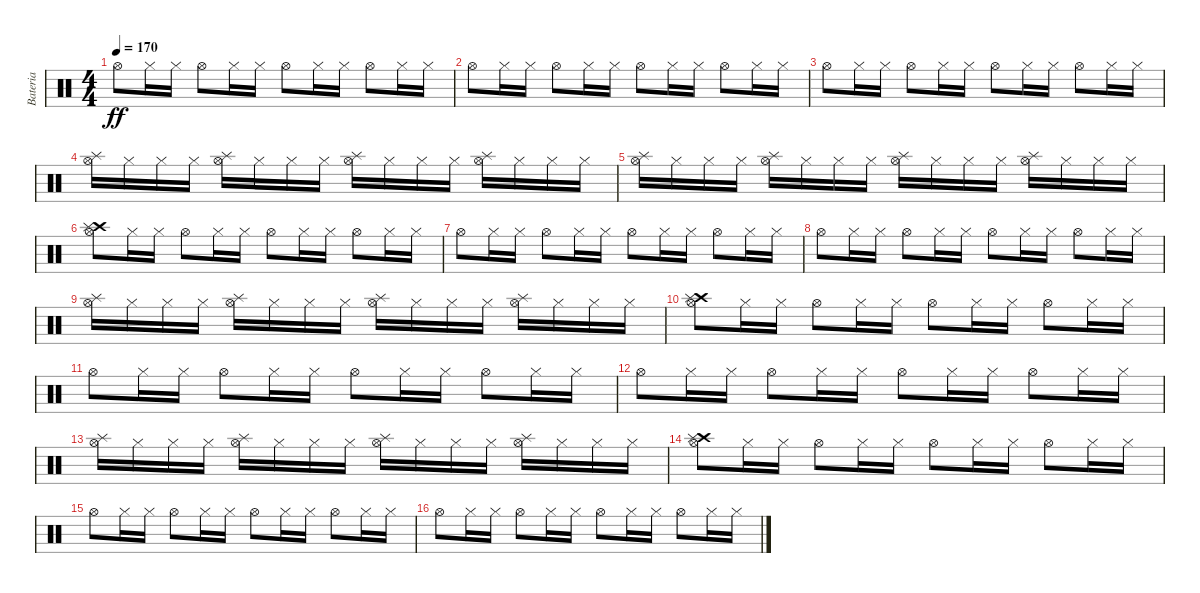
\track ("Bateria" "Bateria") {instrument percussion}
\staff {score}
\articulation defaults
\ts (4 4)
\tempo 170
\clef neutral
\ks c "Hi-Hat (open)".8{dy ff} "Hi-Hat (closed)".16 "Hi-Hat (closed)".16 "Hi-Hat (open)".8 "Hi-Hat (closed)".16 "Hi-Hat (closed)".16 "Hi-Hat (open)".8 "Hi-Hat (closed)".16 "Hi-Hat (closed)".16 "Hi-Hat (open)".8 "Hi-Hat (closed)".16 "Hi-Hat (closed)".16
|
"Hi-Hat (open)".8 "Hi-Hat (closed)".16 "Hi-Hat (closed)".16 "Hi-Hat (open)".8 "Hi-Hat (closed)".16 "Hi-Hat (closed)".16 "Hi-Hat (open)".8 "Hi-Hat (closed)".16 "Hi-Hat (closed)".16 "Hi-Hat (open)".8 "Hi-Hat (closed)".16 "Hi-Hat (closed)".16 |
"Hi-Hat (open)".8 "Hi-Hat (closed)".16 "Hi-Hat (closed)".16 "Hi-Hat (open)".8 "Hi-Hat (closed)".16 "Hi-Hat (closed)".16 "Hi-Hat (open)".8 "Hi-Hat (closed)".16 "Hi-Hat (closed)".16 "Hi-Hat (open)".8 "Hi-Hat (closed)".16 "Hi-Hat (closed)".16 |
("Hi-Hat (open)" "Splash (hit)").16 "Hi-Hat (closed)".16 "Hi-Hat (closed)".16 "Hi-Hat (closed)".16 ("Hi-Hat (open)" "Splash (hit)").16 "Hi-Hat (closed)".16 "Hi-Hat (closed)".16 "Hi-Hat (closed)".16 ("Hi-Hat (open)" "Splash (hit)").16 "Hi-Hat (closed)".16 "Hi-Hat (closed)".16 "Hi-Hat (closed)".16 ("Hi-Hat (open)" "Splash (hit)").16 "Hi-Hat (closed)".16 "Hi-Hat (closed)".16 "Hi-Hat (closed)".16 |
("Hi-Hat (open)" "Splash (hit)").16 "Hi-Hat (closed)".16 "Hi-Hat (closed)".16 "Hi-Hat (closed)".16 ("Hi-Hat (open)" "Splash (hit)").16 "Hi-Hat (closed)".16 "Hi-Hat (closed)".16 "Hi-Hat (closed)".16 ("Hi-Hat (open)" "Splash (hit)").16 "Hi-Hat (closed)".16 "Hi-Hat (closed)".16 "Hi-Hat (closed)".16 ("Hi-Hat (open)" "Splash (hit)").16 "Hi-Hat (closed)".16 "Hi-Hat (closed)".16 "Hi-Hat (closed)".16 |
("Hi-Hat (open)" "Crash high (hit)" "Splash (hit)").8 "Hi-Hat (closed)".16 "Hi-Hat (closed)".16 "Hi-Hat (open)".8 "Hi-Hat (closed)".16 "Hi-Hat (closed)".16 "Hi-Hat (open)".8 "Hi-Hat (closed)".16 "Hi-Hat (closed)".16 "Hi-Hat (open)".8 "Hi-Hat (closed)".16 "Hi-Hat (closed)".16 |
"Hi-Hat (open)".8 "Hi-Hat (closed)".16 "Hi-Hat (closed)".16 "Hi-Hat (open)".8 "Hi-Hat (closed)".16 "Hi-Hat (closed)".16 "Hi-Hat (open)".8 "Hi-Hat (closed)".16 "Hi-Hat (closed)".16 "Hi-Hat (open)".8 "Hi-Hat (closed)".16 "Hi-Hat (closed)".16 |
"Hi-Hat (open)".8 "Hi-Hat (closed)".16 "Hi-Hat (closed)".16 "Hi-Hat (open)".8 "Hi-Hat (closed)".16 "Hi-Hat (closed)".16 "Hi-Hat (open)".8 "Hi-Hat (closed)".16 "Hi-Hat (closed)".16 "Hi-Hat (open)".8 "Hi-Hat (closed)".16 "Hi-Hat (closed)".16 |
("Hi-Hat (open)" "Splash (hit)").16 "Hi-Hat (closed)".16 "Hi-Hat (closed)".16 "Hi-Hat (closed)".16 ("Hi-Hat (open)" "Splash (hit)").16 "Hi-Hat (closed)".16 "Hi-Hat (closed)".16 "Hi-Hat (closed)".16 ("Hi-Hat (open)" "Splash (hit)").16 "Hi-Hat (closed)".16 "Hi-Hat (closed)".16 "Hi-Hat (closed)".16 ("Hi-Hat (open)" "Splash (hit)").16 "Hi-Hat (closed)".16 "Hi-Hat (closed)".16 "Hi-Hat (closed)".16 |
("Hi-Hat (open)" "Crash high (hit)" "Splash (hit)").8 "Hi-Hat (closed)".16 "Hi-Hat (closed)".16 "Hi-Hat (open)".8 "Hi-Hat (closed)".16 "Hi-Hat (closed)".16 "Hi-Hat (open)".8 "Hi-Hat (closed)".16 "Hi-Hat (closed)".16 "Hi-Hat (open)".8 "Hi-Hat (closed)".16 "Hi-Hat (closed)".16 |
"Hi-Hat (open)".8 "Hi-Hat (closed)".16 "Hi-Hat (closed)".16 "Hi-Hat (open)".8 "Hi-Hat (closed)".16 "Hi-Hat (closed)".16 "Hi-Hat (open)".8 "Hi-Hat (closed)".16 "Hi-Hat (closed)".16 "Hi-Hat (open)".8 "Hi-Hat (closed)".16 "Hi-Hat (closed)".16 |
"Hi-Hat (open)".8 "Hi-Hat (closed)".16 "Hi-Hat (closed)".16 "Hi-Hat (open)".8 "Hi-Hat (closed)".16 "Hi-Hat (closed)".16 "Hi-Hat (open)".8 "Hi-Hat (closed)".16 "Hi-Hat (closed)".16 "Hi-Hat (open)".8 "Hi-Hat (closed)".16 "Hi-Hat (closed)".16 |
("Hi-Hat (open)" "Splash (hit)").16 "Hi-Hat (closed)".16 "Hi-Hat (closed)".16 "Hi-Hat (closed)".16 ("Hi-Hat (open)" "Splash (hit)").16 "Hi-Hat (closed)".16 "Hi-Hat (closed)".16 "Hi-Hat (closed)".16 ("Hi-Hat (open)" "Splash (hit)").16 "Hi-Hat (closed)".16 "Hi-Hat (closed)".16 "Hi-Hat (closed)".16 ("Hi-Hat (open)" "Splash (hit)").16 "Hi-Hat (closed)".16 "Hi-Hat (closed)".16 "Hi-Hat (closed)".16 |
("Hi-Hat (open)" "Crash high (hit)" "Splash (hit)").8 "Hi-Hat (closed)".16 "Hi-Hat (closed)".16 "Hi-Hat (open)".8 "Hi-Hat (closed)".16 "Hi-Hat (closed)".16 "Hi-Hat (open)".8 "Hi-Hat (closed)".16 "Hi-Hat (closed)".16 "Hi-Hat (open)".8 "Hi-Hat (closed)".16 "Hi-Hat (closed)".16 |
"Hi-Hat (open)".8 "Hi-Hat (closed)".16 "Hi-Hat (closed)".16 "Hi-Hat (open)".8 "Hi-Hat (closed)".16 "Hi-Hat (closed)".16 "Hi-Hat (open)".8 "Hi-Hat (closed)".16 "Hi-Hat (closed)".16 "Hi-Hat (open)".8 "Hi-Hat (closed)".16 "Hi-Hat (closed)".16 |
"Hi-Hat (open)".8 "Hi-Hat (closed)".16 "Hi-Hat (closed)".16 "Hi-Hat (open)".8 "Hi-Hat (closed)".16 "Hi-Hat (closed)".16 "Hi-Hat (open)".8 "Hi-Hat (closed)".16 "Hi-Hat (closed)".16 "Hi-Hat (open)".8 "Hi-Hat (closed)".16 "Hi-Hat (closed)".16
